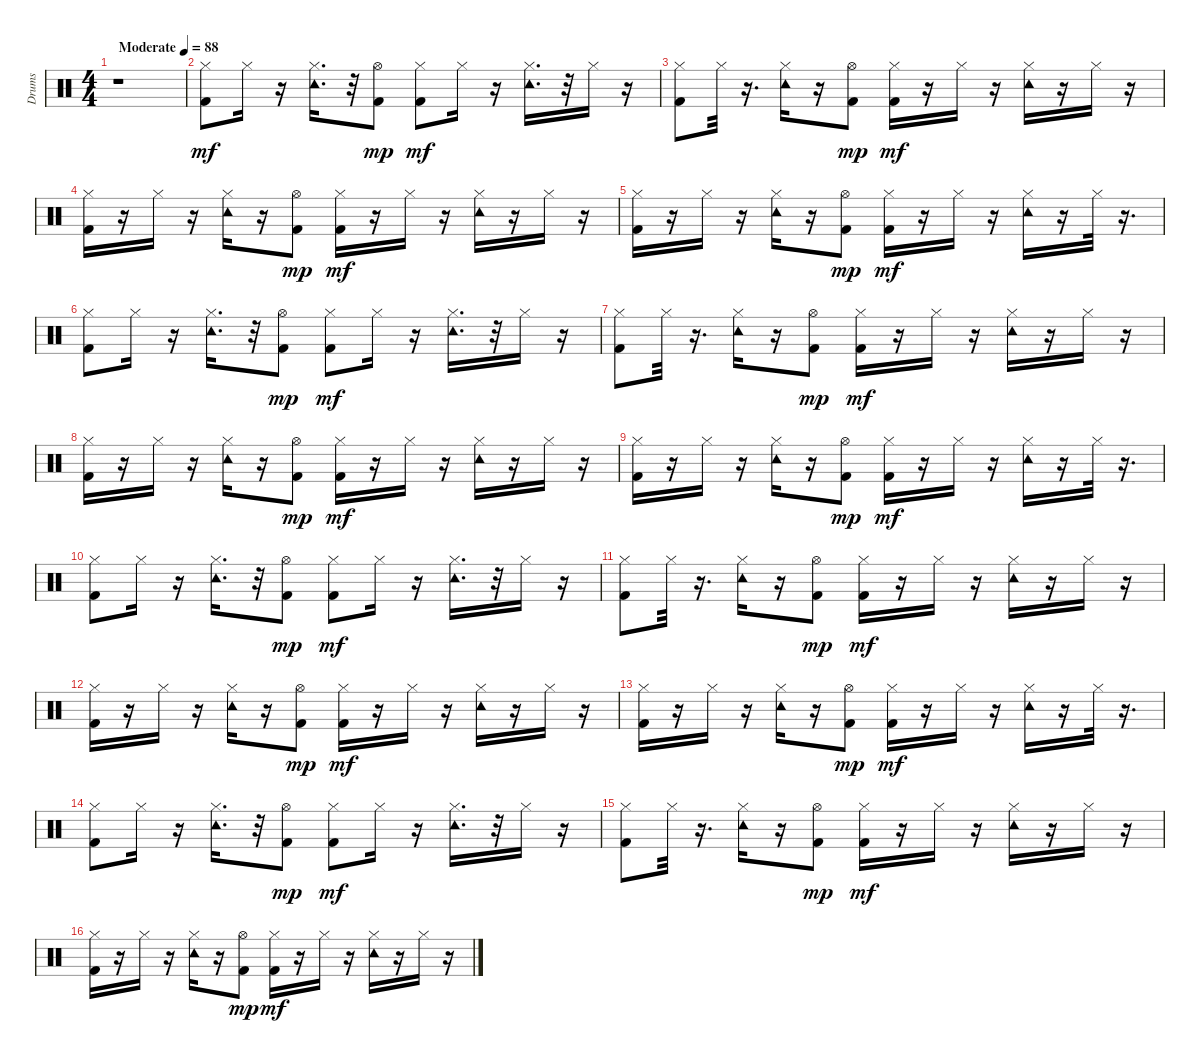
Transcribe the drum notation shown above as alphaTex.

\track ("Drums" "Drums") {instrument percussion}
\staff {score}
\articulation defaults
\ts (4 4)
\tempo (88 "Moderate")
\clef neutral
\ks c
r.1{dy mf} |
("Kick (hit) 2" "Hi-Hat (closed)").8 "Hi-Hat (closed)".16 r.16 ("Tambourine (hit)" "Hi-Hat (closed)").16{d} r.32 ("Kick (hit) 2" "Hi-Hat (open)").8{dy mp} ("Kick (hit) 2" "Hi-Hat (closed)").8{dy mf} "Hi-Hat (closed)".16 r.16 ("Tambourine (hit)" "Hi-Hat (closed)").16{d} r.32 "Hi-Hat (closed)".16 r.16 |
("Kick (hit) 2" "Hi-Hat (closed)").8 "Hi-Hat (closed)".32 r.16{d} ("Tambourine (hit)" "Hi-Hat (closed)").16 r.16 ("Kick (hit) 2" "Hi-Hat (open)").8{dy mp} ("Kick (hit) 2" "Hi-Hat (closed)").16{dy mf} r.16 "Hi-Hat (closed)".16 r.16 ("Tambourine (hit)" "Hi-Hat (closed)").16 r.16 "Hi-Hat (closed)".16 r.16 |
("Kick (hit) 2" "Hi-Hat (closed)").16 r.16 "Hi-Hat (closed)".16 r.16 ("Tambourine (hit)" "Hi-Hat (closed)").16 r.16 ("Kick (hit) 2" "Hi-Hat (open)").8{dy mp} ("Kick (hit) 2" "Hi-Hat (closed)").16{dy mf} r.16 "Hi-Hat (closed)".16 r.16 ("Tambourine (hit)" "Hi-Hat (closed)").16 r.16 "Hi-Hat (closed)".16 r.16 |
("Kick (hit) 2" "Hi-Hat (closed)").16 r.16 "Hi-Hat (closed)".16 r.16 ("Tambourine (hit)" "Hi-Hat (closed)").16 r.16 ("Kick (hit) 2" "Hi-Hat (open)").8{dy mp} ("Kick (hit) 2" "Hi-Hat (closed)").16{dy mf} r.16 "Hi-Hat (closed)".16 r.16 ("Tambourine (hit)" "Hi-Hat (closed)").16 r.16 "Hi-Hat (closed)".32 r.16{d} |
("Kick (hit) 2" "Hi-Hat (closed)").8 "Hi-Hat (closed)".16 r.16 ("Tambourine (hit)" "Hi-Hat (closed)").16{d} r.32 ("Kick (hit) 2" "Hi-Hat (open)").8{dy mp} ("Kick (hit) 2" "Hi-Hat (closed)").8{dy mf} "Hi-Hat (closed)".16 r.16 ("Tambourine (hit)" "Hi-Hat (closed)").16{d} r.32 "Hi-Hat (closed)".16 r.16 |
("Kick (hit) 2" "Hi-Hat (closed)").8 "Hi-Hat (closed)".32 r.16{d} ("Tambourine (hit)" "Hi-Hat (closed)").16 r.16 ("Kick (hit) 2" "Hi-Hat (open)").8{dy mp} ("Kick (hit) 2" "Hi-Hat (closed)").16{dy mf} r.16 "Hi-Hat (closed)".16 r.16 ("Tambourine (hit)" "Hi-Hat (closed)").16 r.16 "Hi-Hat (closed)".16 r.16 |
("Kick (hit) 2" "Hi-Hat (closed)").16 r.16 "Hi-Hat (closed)".16 r.16 ("Tambourine (hit)" "Hi-Hat (closed)").16 r.16 ("Kick (hit) 2" "Hi-Hat (open)").8{dy mp} ("Kick (hit) 2" "Hi-Hat (closed)").16{dy mf} r.16 "Hi-Hat (closed)".16 r.16 ("Tambourine (hit)" "Hi-Hat (closed)").16 r.16 "Hi-Hat (closed)".16 r.16 |
("Kick (hit) 2" "Hi-Hat (closed)").16 r.16 "Hi-Hat (closed)".16 r.16 ("Tambourine (hit)" "Hi-Hat (closed)").16 r.16 ("Kick (hit) 2" "Hi-Hat (open)").8{dy mp} ("Kick (hit) 2" "Hi-Hat (closed)").16{dy mf} r.16 "Hi-Hat (closed)".16 r.16 ("Tambourine (hit)" "Hi-Hat (closed)").16 r.16 "Hi-Hat (closed)".32 r.16{d} |
("Kick (hit) 2" "Hi-Hat (closed)").8 "Hi-Hat (closed)".16 r.16 ("Tambourine (hit)" "Hi-Hat (closed)").16{d} r.32 ("Kick (hit) 2" "Hi-Hat (open)").8{dy mp} ("Kick (hit) 2" "Hi-Hat (closed)").8{dy mf} "Hi-Hat (closed)".16 r.16 ("Tambourine (hit)" "Hi-Hat (closed)").16{d} r.32 "Hi-Hat (closed)".16 r.16 |
("Kick (hit) 2" "Hi-Hat (closed)").8 "Hi-Hat (closed)".32 r.16{d} ("Tambourine (hit)" "Hi-Hat (closed)").16 r.16 ("Kick (hit) 2" "Hi-Hat (open)").8{dy mp} ("Kick (hit) 2" "Hi-Hat (closed)").16{dy mf} r.16 "Hi-Hat (closed)".16 r.16 ("Tambourine (hit)" "Hi-Hat (closed)").16 r.16 "Hi-Hat (closed)".16 r.16 |
("Kick (hit) 2" "Hi-Hat (closed)").16 r.16 "Hi-Hat (closed)".16 r.16 ("Tambourine (hit)" "Hi-Hat (closed)").16 r.16 ("Kick (hit) 2" "Hi-Hat (open)").8{dy mp} ("Kick (hit) 2" "Hi-Hat (closed)").16{dy mf} r.16 "Hi-Hat (closed)".16 r.16 ("Tambourine (hit)" "Hi-Hat (closed)").16 r.16 "Hi-Hat (closed)".16 r.16 |
("Kick (hit) 2" "Hi-Hat (closed)").16 r.16 "Hi-Hat (closed)".16 r.16 ("Tambourine (hit)" "Hi-Hat (closed)").16 r.16 ("Kick (hit) 2" "Hi-Hat (open)").8{dy mp} ("Kick (hit) 2" "Hi-Hat (closed)").16{dy mf} r.16 "Hi-Hat (closed)".16 r.16 ("Tambourine (hit)" "Hi-Hat (closed)").16 r.16 "Hi-Hat (closed)".32 r.16{d} |
("Kick (hit) 2" "Hi-Hat (closed)").8 "Hi-Hat (closed)".16 r.16 ("Tambourine (hit)" "Hi-Hat (closed)").16{d} r.32 ("Kick (hit) 2" "Hi-Hat (open)").8{dy mp} ("Kick (hit) 2" "Hi-Hat (closed)").8{dy mf} "Hi-Hat (closed)".16 r.16 ("Tambourine (hit)" "Hi-Hat (closed)").16{d} r.32 "Hi-Hat (closed)".16 r.16 |
("Kick (hit) 2" "Hi-Hat (closed)").8 "Hi-Hat (closed)".32 r.16{d} ("Tambourine (hit)" "Hi-Hat (closed)").16 r.16 ("Kick (hit) 2" "Hi-Hat (open)").8{dy mp} ("Kick (hit) 2" "Hi-Hat (closed)").16{dy mf} r.16 "Hi-Hat (closed)".16 r.16 ("Tambourine (hit)" "Hi-Hat (closed)").16 r.16 "Hi-Hat (closed)".16 r.16 |
("Kick (hit) 2" "Hi-Hat (closed)").16 r.16 "Hi-Hat (closed)".16 r.16 ("Tambourine (hit)" "Hi-Hat (closed)").16 r.16 ("Kick (hit) 2" "Hi-Hat (open)").8{dy mp} ("Kick (hit) 2" "Hi-Hat (closed)").16{dy mf} r.16 "Hi-Hat (closed)".16 r.16 ("Tambourine (hit)" "Hi-Hat (closed)").16 r.16 "Hi-Hat (closed)".16 r.16
